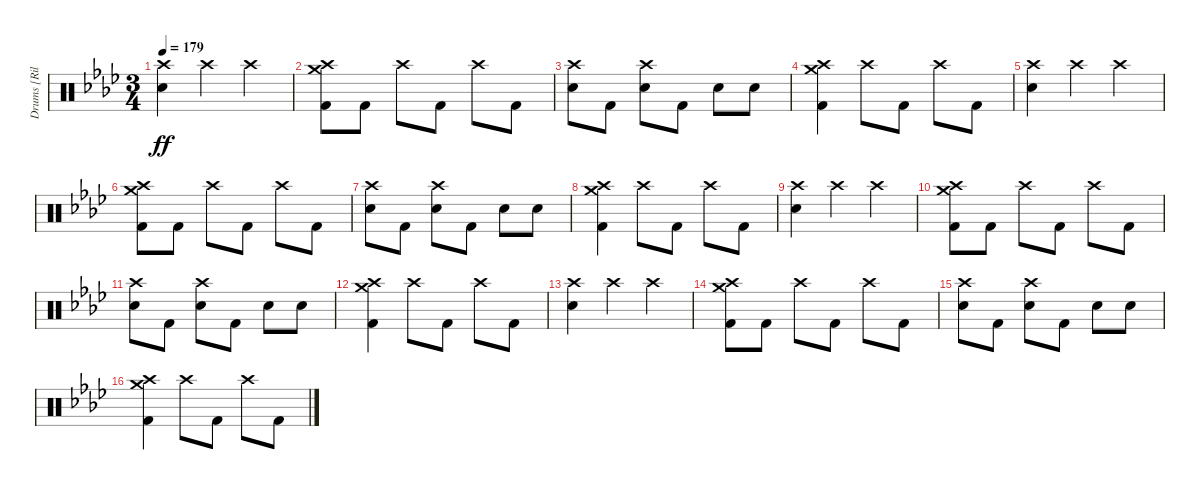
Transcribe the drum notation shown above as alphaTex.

\track ("Drums [Riley]" "Drums [Ril") {instrument percussion}
\staff {score}
\articulation defaults
\ts (3 4)
\tempo 179
\clef neutral
\ks ab
("Crash high (hit)" "Electric Snare (hit)").4{dy ff} "Crash high (hit)".4 "Crash high (hit)".4 |
("Crash medium (hit)" "Crash high (hit)" "Kick (hit) 2").8 "Kick (hit) 2".8 "Crash high (hit)".8 "Kick (hit) 2".8 "Crash high (hit)".8 "Kick (hit) 2".8 |
("Crash high (hit)" "Electric Snare (hit)").8 "Kick (hit) 2".8 ("Crash high (hit)" "Electric Snare (hit)").8 "Kick (hit) 2".8 "Electric Snare (hit)".8 "Electric Snare (hit)".8 |
("Crash medium (hit)" "Crash high (hit)" "Kick (hit) 2").4 "Crash high (hit)".8 "Kick (hit) 2".8 "Crash high (hit)".8 "Kick (hit) 2".8 |
("Crash high (hit)" "Electric Snare (hit)").4 "Crash high (hit)".4 "Crash high (hit)".4 |
("Crash medium (hit)" "Crash high (hit)" "Kick (hit) 2").8 "Kick (hit) 2".8 "Crash high (hit)".8 "Kick (hit) 2".8 "Crash high (hit)".8 "Kick (hit) 2".8 |
("Crash high (hit)" "Electric Snare (hit)").8 "Kick (hit) 2".8 ("Crash high (hit)" "Electric Snare (hit)").8 "Kick (hit) 2".8 "Electric Snare (hit)".8 "Electric Snare (hit)".8 |
("Crash medium (hit)" "Crash high (hit)" "Kick (hit) 2").4 "Crash high (hit)".8 "Kick (hit) 2".8 "Crash high (hit)".8 "Kick (hit) 2".8 |
("Crash high (hit)" "Electric Snare (hit)").4 "Crash high (hit)".4 "Crash high (hit)".4 |
("Crash medium (hit)" "Crash high (hit)" "Kick (hit) 2").8 "Kick (hit) 2".8 "Crash high (hit)".8 "Kick (hit) 2".8 "Crash high (hit)".8 "Kick (hit) 2".8 |
("Crash high (hit)" "Electric Snare (hit)").8 "Kick (hit) 2".8 ("Crash high (hit)" "Electric Snare (hit)").8 "Kick (hit) 2".8 "Electric Snare (hit)".8 "Electric Snare (hit)".8 |
("Crash medium (hit)" "Crash high (hit)" "Kick (hit) 2").4 "Crash high (hit)".8 "Kick (hit) 2".8 "Crash high (hit)".8 "Kick (hit) 2".8 |
("Crash high (hit)" "Electric Snare (hit)").4 "Crash high (hit)".4 "Crash high (hit)".4 |
("Crash medium (hit)" "Crash high (hit)" "Kick (hit) 2").8 "Kick (hit) 2".8 "Crash high (hit)".8 "Kick (hit) 2".8 "Crash high (hit)".8 "Kick (hit) 2".8 |
("Crash high (hit)" "Electric Snare (hit)").8 "Kick (hit) 2".8 ("Crash high (hit)" "Electric Snare (hit)").8 "Kick (hit) 2".8 "Electric Snare (hit)".8 "Electric Snare (hit)".8 |
("Crash medium (hit)" "Crash high (hit)" "Kick (hit) 2").4 "Crash high (hit)".8 "Kick (hit) 2".8 "Crash high (hit)".8 "Kick (hit) 2".8
